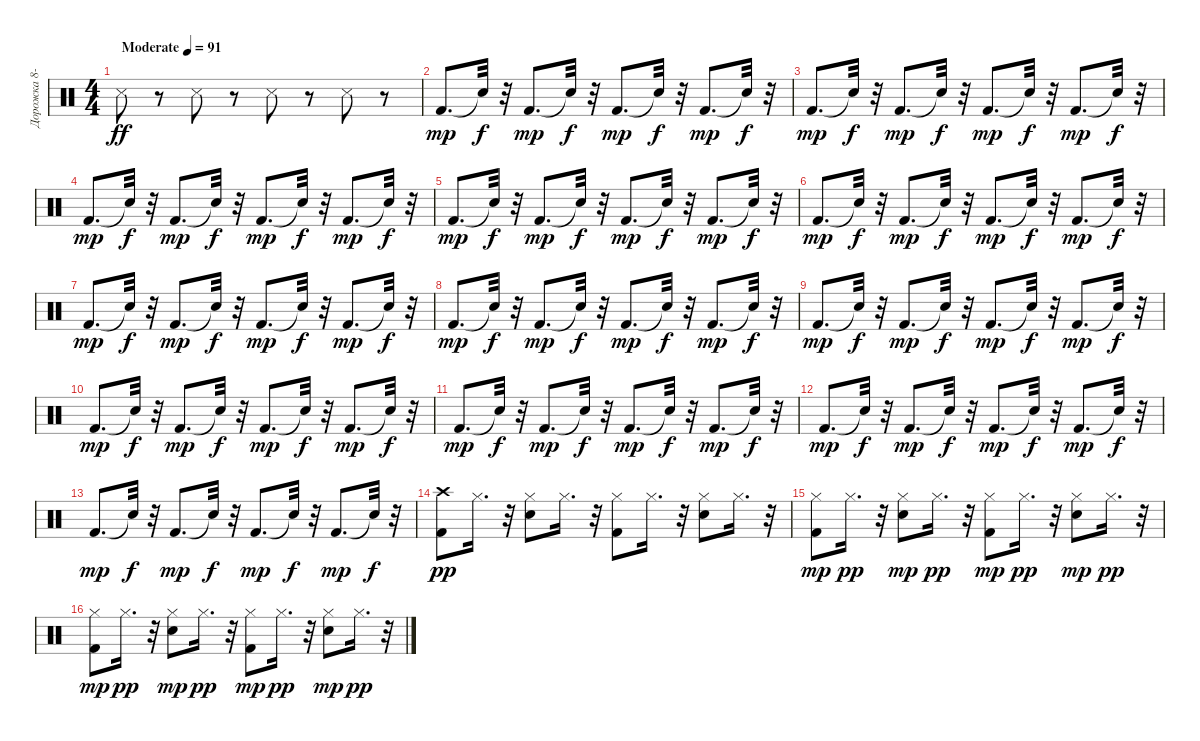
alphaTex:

\track ("Дорожка 8-9-10-11" "Дорожка 8-") {instrument percussion}
\staff {score}
\articulation defaults
\ts (4 4)
\tempo (91 "Moderate")
\clef neutral
\ks c "Snare (side stick) 3".8{dy ff}
r.8 "Snare (side stick) 3".8 r.8 "Snare (side stick) 3".8 r.8 "Snare (side stick) 3".8 r.8 |
"Kick (hit) 2".8{d dy mp} "Snare (hit)"{t}.32{dy f} r.32 "Kick (hit) 2".8{d dy mp} "Snare (hit)"{t}.32{dy f} r.32 "Kick (hit) 2".8{d dy mp} "Snare (hit)"{t}.32{dy f} r.32 "Kick (hit) 2".8{d dy mp} "Snare (hit)"{t}.32{dy f} r.32 |
"Kick (hit) 2".8{d dy mp} "Snare (hit)"{t}.32{dy f} r.32 "Kick (hit) 2".8{d dy mp} "Snare (hit)"{t}.32{dy f} r.32 "Kick (hit) 2".8{d dy mp} "Snare (hit)"{t}.32{dy f} r.32 "Kick (hit) 2".8{d dy mp} "Snare (hit)"{t}.32{dy f} r.32 |
"Kick (hit) 2".8{d dy mp} "Snare (hit)"{t}.32{dy f} r.32 "Kick (hit) 2".8{d dy mp} "Snare (hit)"{t}.32{dy f} r.32 "Kick (hit) 2".8{d dy mp} "Snare (hit)"{t}.32{dy f} r.32 "Kick (hit) 2".8{d dy mp} "Snare (hit)"{t}.32{dy f} r.32 |
"Kick (hit) 2".8{d dy mp} "Snare (hit)"{t}.32{dy f} r.32 "Kick (hit) 2".8{d dy mp} "Snare (hit)"{t}.32{dy f} r.32 "Kick (hit) 2".8{d dy mp} "Snare (hit)"{t}.32{dy f} r.32 "Kick (hit) 2".8{d dy mp} "Snare (hit)"{t}.32{dy f} r.32 |
"Kick (hit) 2".8{d dy mp} "Snare (hit)"{t}.32{dy f} r.32 "Kick (hit) 2".8{d dy mp} "Snare (hit)"{t}.32{dy f} r.32 "Kick (hit) 2".8{d dy mp} "Snare (hit)"{t}.32{dy f} r.32 "Kick (hit) 2".8{d dy mp} "Snare (hit)"{t}.32{dy f} r.32 |
"Kick (hit) 2".8{d dy mp} "Snare (hit)"{t}.32{dy f} r.32 "Kick (hit) 2".8{d dy mp} "Snare (hit)"{t}.32{dy f} r.32 "Kick (hit) 2".8{d dy mp} "Snare (hit)"{t}.32{dy f} r.32 "Kick (hit) 2".8{d dy mp} "Snare (hit)"{t}.32{dy f} r.32 |
"Kick (hit) 2".8{d dy mp} "Snare (hit)"{t}.32{dy f} r.32 "Kick (hit) 2".8{d dy mp} "Snare (hit)"{t}.32{dy f} r.32 "Kick (hit) 2".8{d dy mp} "Snare (hit)"{t}.32{dy f} r.32 "Kick (hit) 2".8{d dy mp} "Snare (hit)"{t}.32{dy f} r.32 |
"Kick (hit) 2".8{d dy mp} "Snare (hit)"{t}.32{dy f} r.32 "Kick (hit) 2".8{d dy mp} "Snare (hit)"{t}.32{dy f} r.32 "Kick (hit) 2".8{d dy mp} "Snare (hit)"{t}.32{dy f} r.32 "Kick (hit) 2".8{d dy mp} "Snare (hit)"{t}.32{dy f} r.32 |
"Kick (hit) 2".8{d dy mp} "Snare (hit)"{t}.32{dy f} r.32 "Kick (hit) 2".8{d dy mp} "Snare (hit)"{t}.32{dy f} r.32 "Kick (hit) 2".8{d dy mp} "Snare (hit)"{t}.32{dy f} r.32 "Kick (hit) 2".8{d dy mp} "Snare (hit)"{t}.32{dy f} r.32 |
"Kick (hit) 2".8{d dy mp} "Snare (hit)"{t}.32{dy f} r.32 "Kick (hit) 2".8{d dy mp} "Snare (hit)"{t}.32{dy f} r.32 "Kick (hit) 2".8{d dy mp} "Snare (hit)"{t}.32{dy f} r.32 "Kick (hit) 2".8{d dy mp} "Snare (hit)"{t}.32{dy f} r.32 |
"Kick (hit) 2".8{d dy mp} "Snare (hit)"{t}.32{dy f} r.32 "Kick (hit) 2".8{d dy mp} "Snare (hit)"{t}.32{dy f} r.32 "Kick (hit) 2".8{d dy mp} "Snare (hit)"{t}.32{dy f} r.32 "Kick (hit) 2".8{d dy mp} "Snare (hit)"{t}.32{dy f} r.32 |
"Kick (hit) 2".8{d dy mp} "Snare (hit)"{t}.32{dy f} r.32 "Kick (hit) 2".8{d dy mp} "Snare (hit)"{t}.32{dy f} r.32 "Kick (hit) 2".8{d dy mp} "Snare (hit)"{t}.32{dy f} r.32 "Kick (hit) 2".8{d dy mp} "Snare (hit)"{t}.32{dy f} r.32 |
("Kick (hit) 2" "Crash high (hit)").8{dy pp} "Hi-Hat (closed)".16{d} r.32 ("Electric Snare (hit)" "Hi-Hat (closed)").8 "Hi-Hat (closed)".16{d} r.32 ("Kick (hit) 2" "Hi-Hat (closed)").8 "Hi-Hat (closed)".16{d} r.32 ("Electric Snare (hit)" "Hi-Hat (closed)").8 "Hi-Hat (closed)".16{d} r.32 |
("Hi-Hat (closed)" "Kick (hit) 2").8{dy mp} "Hi-Hat (closed)".16{d dy pp} r.32 ("Hi-Hat (closed)" "Electric Snare (hit)").8{dy mp} "Hi-Hat (closed)".16{d dy pp} r.32 ("Hi-Hat (closed)" "Kick (hit) 2").8{dy mp} "Hi-Hat (closed)".16{d dy pp} r.32 ("Hi-Hat (closed)" "Electric Snare (hit)").8{dy mp} "Hi-Hat (closed)".16{d dy pp} r.32 |
("Hi-Hat (closed)" "Kick (hit) 2").8{dy mp} "Hi-Hat (closed)".16{d dy pp} r.32 ("Hi-Hat (closed)" "Electric Snare (hit)").8{dy mp} "Hi-Hat (closed)".16{d dy pp} r.32 ("Hi-Hat (closed)" "Kick (hit) 2").8{dy mp} "Hi-Hat (closed)".16{d dy pp} r.32 ("Hi-Hat (closed)" "Electric Snare (hit)").8{dy mp} "Hi-Hat (closed)".16{d dy pp} r.32
